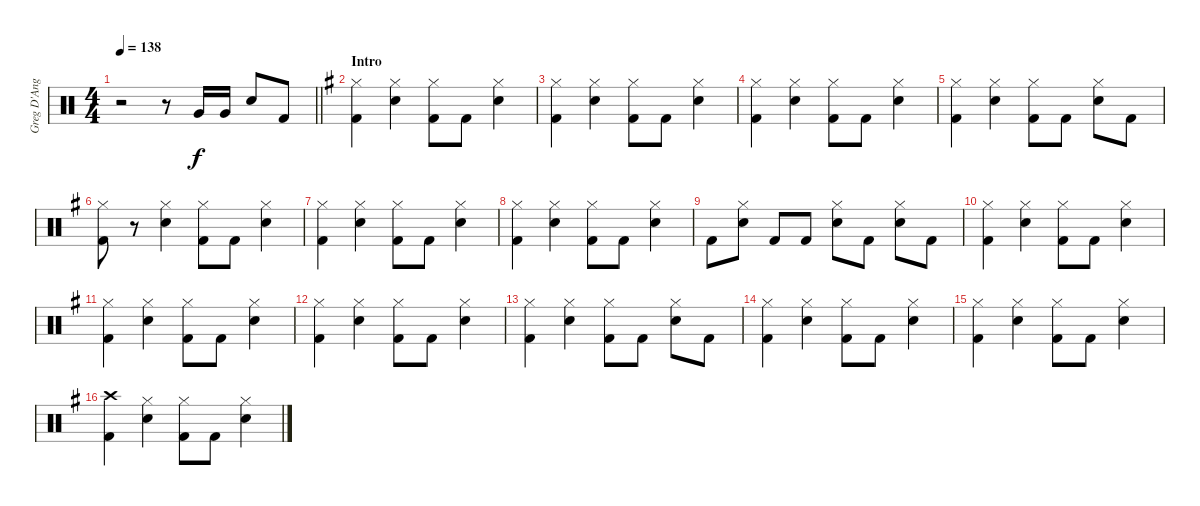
\track ("Greg D'Angelo" "Greg D'Ang") {instrument percussion}
\staff {score}
\articulation defaults
\ts (4 4)
\tempo 138
\clef neutral
\barLineRight lightlight
\ks c
r.2{dy f} r.8 "Very Low Tom (hit)".16 "Very Low Tom (hit)".16 "Snare (hit) 2".8 "Kick (hit) 2".8 |
\section ("" "Intro")
\ks g
("Hi-Hat (closed)" "Kick (hit) 2").4 ("Hi-Hat (closed)" "Snare (hit) 2").4 ("Hi-Hat (closed)" "Kick (hit) 2").8 "Kick (hit) 2".8 ("Hi-Hat (closed)" "Snare (hit) 2").4 |
("Hi-Hat (closed)" "Kick (hit) 2").4 ("Hi-Hat (closed)" "Snare (hit) 2").4 ("Hi-Hat (closed)" "Kick (hit) 2").8 "Kick (hit) 2".8 ("Hi-Hat (closed)" "Snare (hit) 2").4 |
("Hi-Hat (closed)" "Kick (hit) 2").4 ("Hi-Hat (closed)" "Snare (hit) 2").4 ("Hi-Hat (closed)" "Kick (hit) 2").8 "Kick (hit) 2".8 ("Hi-Hat (closed)" "Snare (hit) 2").4 |
("Hi-Hat (closed)" "Kick (hit) 2").4 ("Hi-Hat (closed)" "Snare (hit) 2").4 ("Hi-Hat (closed)" "Kick (hit) 2").8 "Kick (hit) 2".8 ("Hi-Hat (closed)" "Snare (hit) 2").8 "Kick (hit) 2".8 |
("Hi-Hat (closed)" "Kick (hit) 2").8 r.8 ("Hi-Hat (closed)" "Snare (hit) 2").4 ("Hi-Hat (closed)" "Kick (hit) 2").8 "Kick (hit) 2".8 ("Hi-Hat (closed)" "Snare (hit) 2").4 |
("Hi-Hat (closed)" "Kick (hit) 2").4 ("Hi-Hat (closed)" "Snare (hit) 2").4 ("Hi-Hat (closed)" "Kick (hit) 2").8 "Kick (hit) 2".8 ("Hi-Hat (closed)" "Snare (hit) 2").4 |
("Hi-Hat (closed)" "Kick (hit) 2").4 ("Hi-Hat (closed)" "Snare (hit) 2").4 ("Hi-Hat (closed)" "Kick (hit) 2").8 "Kick (hit) 2".8 ("Hi-Hat (closed)" "Snare (hit) 2").4 |
"Kick (hit) 2".8 ("Hi-Hat (closed)" "Snare (hit) 2").8 "Kick (hit) 2".8 "Kick (hit) 2".8 ("Hi-Hat (closed)" "Snare (hit) 2").8 "Kick (hit) 2".8 ("Hi-Hat (closed)" "Snare (hit) 2").8 "Kick (hit) 2".8 |
("Hi-Hat (closed)" "Kick (hit) 2").4 ("Hi-Hat (closed)" "Snare (hit) 2").4 ("Hi-Hat (closed)" "Kick (hit) 2").8 "Kick (hit) 2".8 ("Hi-Hat (closed)" "Snare (hit) 2").4 |
("Hi-Hat (closed)" "Kick (hit) 2").4 ("Hi-Hat (closed)" "Snare (hit) 2").4 ("Hi-Hat (closed)" "Kick (hit) 2").8 "Kick (hit) 2".8 ("Hi-Hat (closed)" "Snare (hit) 2").4 |
("Hi-Hat (closed)" "Kick (hit) 2").4 ("Hi-Hat (closed)" "Snare (hit) 2").4 ("Hi-Hat (closed)" "Kick (hit) 2").8 "Kick (hit) 2".8 ("Hi-Hat (closed)" "Snare (hit) 2").4 |
("Hi-Hat (closed)" "Kick (hit) 2").4 ("Hi-Hat (closed)" "Snare (hit) 2").4 ("Hi-Hat (closed)" "Kick (hit) 2").8 "Kick (hit) 2".8 ("Hi-Hat (closed)" "Snare (hit) 2").8 "Kick (hit) 2".8 |
("Hi-Hat (closed)" "Kick (hit) 2").4 ("Hi-Hat (closed)" "Snare (hit) 2").4 ("Hi-Hat (closed)" "Kick (hit) 2").8 "Kick (hit) 2".8 ("Hi-Hat (closed)" "Snare (hit) 2").4 |
("Hi-Hat (closed)" "Kick (hit) 2").4 ("Hi-Hat (closed)" "Snare (hit) 2").4 ("Hi-Hat (closed)" "Kick (hit) 2").8 "Kick (hit) 2".8 ("Hi-Hat (closed)" "Snare (hit) 2").4 |
("Crash high (hit)" "Kick (hit) 2").4 ("Hi-Hat (closed)" "Snare (hit) 2").4 ("Hi-Hat (closed)" "Kick (hit) 2").8 "Kick (hit) 2".8 ("Hi-Hat (closed)" "Snare (hit) 2").4
